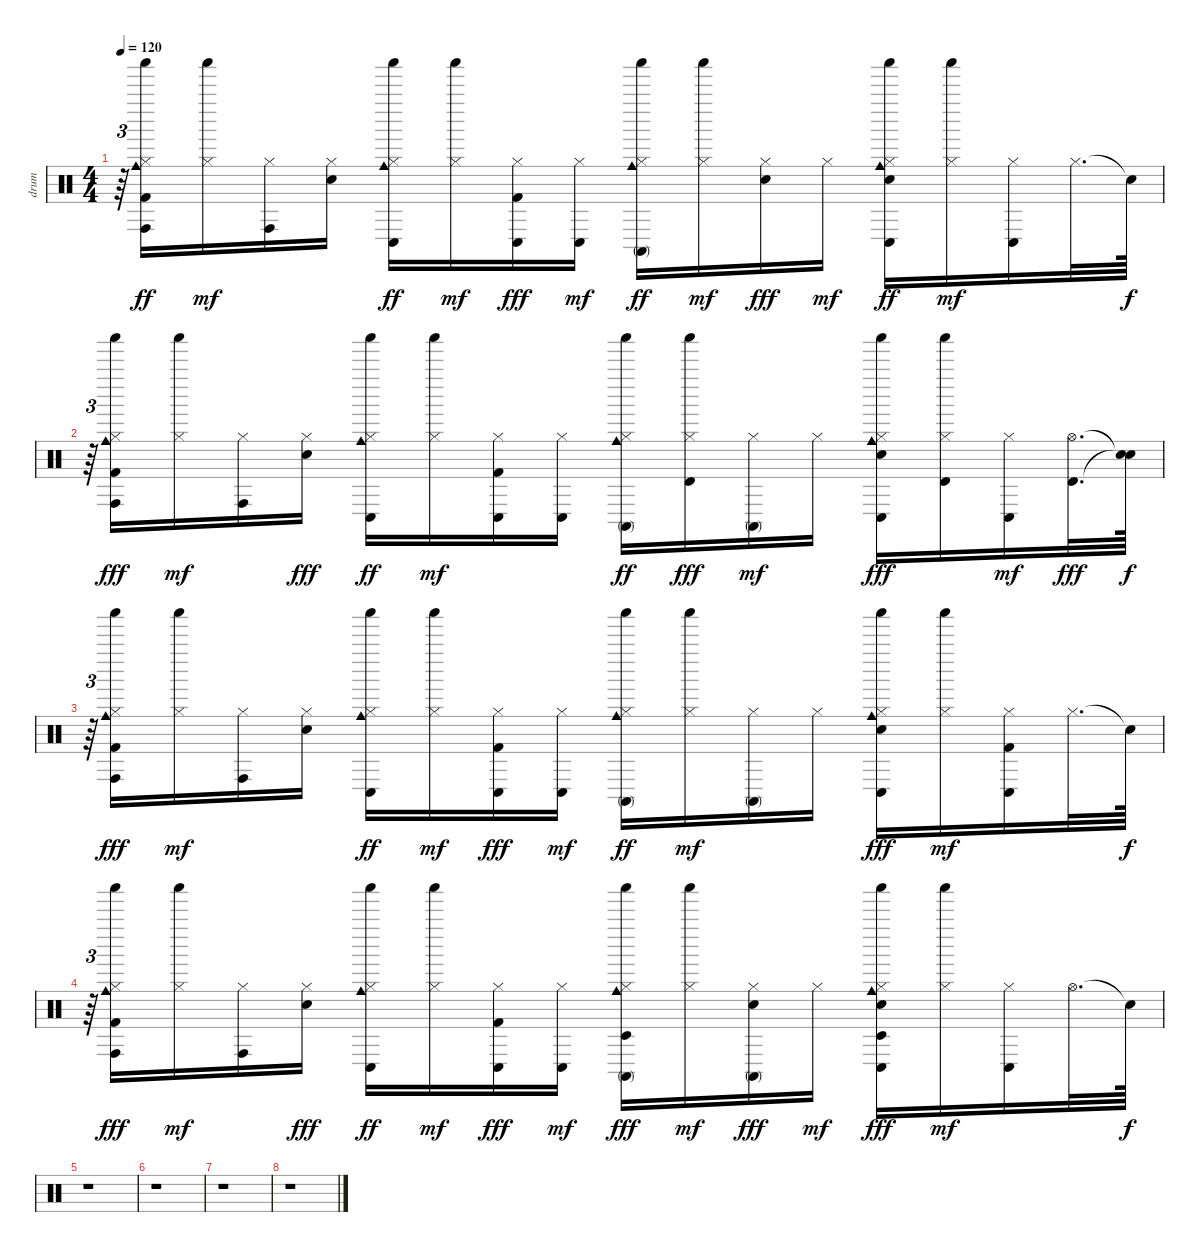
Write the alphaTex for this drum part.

\track ("drum" "drum") {instrument percussion}
\staff {score}
\articulation defaults
\ts (4 4)
\tempo 120
\clef neutral
\ks c
r.64{tu (3 2) dy f} ("Conga high (hit)" "Shaker (hit)" "Cowbell medium (hit)" "Kick (hit) 2" "Hi-Hat (closed)").16{dy ff} ("Shaker (hit)" "Hi-Hat (closed)").16{dy mf} ("Conga high (hit)" "Hi-Hat (closed)").16 ("Electric Snare (hit)" "Hi-Hat (closed)").16 ("Conga low (hit)" "Cowbell medium (hit)" "Shaker (hit)" "Hi-Hat (closed)").16{dy ff} ("Shaker (hit)" "Hi-Hat (closed)").16{dy mf} ("Conga low (hit)" "Hi-Hat (closed)" "Kick (hit) 2").16{dy fff} ("Conga low (hit)" "Hi-Hat (closed)").16{dy mf} ("Conga high (mute)" "Shaker (hit)" "Cowbell medium (hit)" "Hi-Hat (closed)").16{dy ff} ("Shaker (hit)" "Hi-Hat (closed)").16{dy mf} ("Hi-Hat (closed)" "Electric Snare (hit)").16{dy fff} "Hi-Hat (closed)".16{dy mf} ("Conga low (hit)" "Shaker (hit)" "Cowbell medium (hit)" "Electric Snare (hit)" "Hi-Hat (closed)").16{dy ff} ("Shaker (hit)" "Hi-Hat (closed)").16{dy mf} ("Conga low (hit)" "Hi-Hat (closed)").16 "Hi-Hat (closed)".32{d} "Snare (hit)"{t}.64{dy f} |
r.64{tu (3 2)} ("Conga high (hit)" "Shaker (hit)" "Cowbell medium (hit)" "Hi-Hat (closed)" "Kick (hit) 2").16{dy fff} ("Shaker (hit)" "Hi-Hat (closed)").16{dy mf} ("Conga high (hit)" "Hi-Hat (closed)").16 ("Hi-Hat (closed)" "Electric Snare (hit)").16{dy fff} ("Conga low (hit)" "Cowbell medium (hit)" "Shaker (hit)" "Hi-Hat (closed)").16{dy ff} ("Shaker (hit)" "Hi-Hat (closed)").16{dy mf} ("Conga low (hit)" "Kick (hit) 2" "Hi-Hat (closed)").16 ("Conga low (hit)" "Hi-Hat (closed)").16 ("Conga high (mute)" "Cowbell medium (hit)" "Shaker (hit)" "Hi-Hat (closed)").16{dy ff} ("Shaker (hit)" "Hi-Hat (closed)" "Timbale high (hit)").16{dy fff} ("Conga high (mute)" "Hi-Hat (closed)").16{dy mf} "Hi-Hat (closed)".16 ("Conga low (hit)" "Cowbell medium (hit)" "Shaker (hit)" "Hi-Hat (closed)" "Electric Snare (hit)").16{dy fff} ("Shaker (hit)" "Hi-Hat (closed)" "Timbale high (hit)").16 ("Conga low (hit)" "Hi-Hat (closed)").16{dy mf} ("Hi-Hat (open)" "Timbale high (hit)").32{d dy fff} ("Snare (hit)"{t} "Snare (hit)"{t}).64{dy f} |
r.64{tu (3 2)} ("Conga high (hit)" "Shaker (hit)" "Hi-Hat (closed)" "Cowbell medium (hit)" "Kick (hit) 2").16{dy fff} ("Shaker (hit)" "Hi-Hat (closed)").16{dy mf} ("Conga high (hit)" "Hi-Hat (closed)").16 ("Electric Snare (hit)" "Hi-Hat (closed)").16 ("Conga low (hit)" "Cowbell medium (hit)" "Shaker (hit)" "Hi-Hat (closed)").16{dy ff} ("Shaker (hit)" "Hi-Hat (closed)").16{dy mf} ("Conga low (hit)" "Hi-Hat (closed)" "Kick (hit) 2").16{dy fff} ("Conga low (hit)" "Hi-Hat (closed)").16{dy mf} ("Conga high (mute)" "Cowbell medium (hit)" "Shaker (hit)" "Hi-Hat (closed)").16{dy ff} ("Shaker (hit)" "Hi-Hat (closed)").16{dy mf} ("Conga high (mute)" "Hi-Hat (closed)").16 "Hi-Hat (closed)".16 ("Conga low (hit)" "Cowbell medium (hit)" "Shaker (hit)" "Hi-Hat (closed)" "Electric Snare (hit)").16{dy fff} ("Shaker (hit)" "Hi-Hat (closed)").16{dy mf} ("Conga low (hit)" "Kick (hit) 2" "Hi-Hat (closed)").16 "Hi-Hat (closed)".32{d} "Snare (hit)"{t}.64{dy f} |
r.64{tu (3 2)} ("Conga high (hit)" "Cowbell medium (hit)" "Shaker (hit)" "Hi-Hat (closed)" "Kick (hit) 2").16{dy fff} ("Shaker (hit)" "Hi-Hat (closed)").16{dy mf} ("Conga high (hit)" "Hi-Hat (closed)").16 ("Hi-Hat (closed)" "Electric Snare (hit)").16{dy fff} ("Conga low (hit)" "Cowbell medium (hit)" "Shaker (hit)" "Hi-Hat (closed)").16{dy ff} ("Shaker (hit)" "Hi-Hat (closed)").16{dy mf} ("Conga low (hit)" "Hi-Hat (closed)" "Kick (hit) 2").16{dy fff} ("Conga low (hit)" "Hi-Hat (closed)").16{dy mf} ("Conga high (mute)" "Cowbell medium (hit)" "Shaker (hit)" "Hi-Hat (closed)" "Timbale low (hit)").16{dy fff} ("Shaker (hit)" "Hi-Hat (closed)").16{dy mf} ("Conga high (mute)" "Hi-Hat (closed)" "Electric Snare (hit)").16{dy fff} "Hi-Hat (closed)".16{dy mf} ("Conga low (hit)" "Hi-Hat (closed)" "Shaker (hit)" "Cowbell medium (hit)" "Electric Snare (hit)" "Timbale low (hit)").16{dy fff} ("Shaker (hit)" "Hi-Hat (closed)").16{dy mf} ("Conga low (hit)" "Hi-Hat (closed)").16 "Hi-Hat (open)".32{d} "Snare (hit)"{t}.64{dy f} |
r.1 |
r.1 |
r.1 |
r.1
